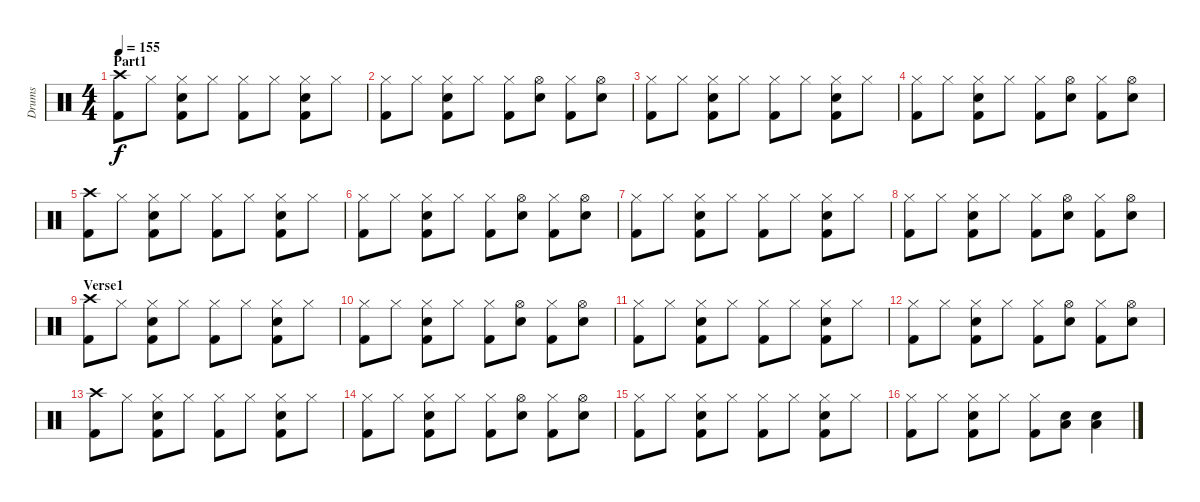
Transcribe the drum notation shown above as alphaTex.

\track ("Drums" "Drums") {instrument percussion}
\staff {score}
\articulation defaults
\ts (4 4)
\section ("" "Part1")
\tempo 155
\clef neutral
\ks c
("Crash high (hit)" "Kick (hit) 2").8{dy f} "Hi-Hat (closed)".8 ("Hi-Hat (closed)" "Kick (hit) 2" "Electric Snare (hit)").8 "Hi-Hat (closed)".8 ("Hi-Hat (closed)" "Kick (hit) 2").8 "Hi-Hat (closed)".8 ("Hi-Hat (closed)" "Kick (hit) 2" "Electric Snare (hit)").8 "Hi-Hat (closed)".8 |
("Hi-Hat (closed)" "Kick (hit) 2").8 "Hi-Hat (closed)".8 ("Hi-Hat (closed)" "Kick (hit) 2" "Electric Snare (hit)").8 "Hi-Hat (closed)".8 ("Hi-Hat (closed)" "Kick (hit) 2").8 ("Hi-Hat (open)" "Electric Snare (hit)").8 ("Hi-Hat (closed)" "Kick (hit) 2").8 ("Hi-Hat (open)" "Electric Snare (hit)").8 |
("Hi-Hat (closed)" "Kick (hit) 2").8 "Hi-Hat (closed)".8 ("Hi-Hat (closed)" "Kick (hit) 2" "Electric Snare (hit)").8 "Hi-Hat (closed)".8 ("Hi-Hat (closed)" "Kick (hit) 2").8 "Hi-Hat (closed)".8 ("Hi-Hat (closed)" "Kick (hit) 2" "Electric Snare (hit)").8 "Hi-Hat (closed)".8 |
("Hi-Hat (closed)" "Kick (hit) 2").8 "Hi-Hat (closed)".8 ("Hi-Hat (closed)" "Kick (hit) 2" "Electric Snare (hit)").8 "Hi-Hat (closed)".8 ("Hi-Hat (closed)" "Kick (hit) 2").8 ("Hi-Hat (open)" "Electric Snare (hit)").8 ("Hi-Hat (closed)" "Kick (hit) 2").8 ("Hi-Hat (open)" "Electric Snare (hit)").8 |
("Crash high (hit)" "Kick (hit) 2").8 "Hi-Hat (closed)".8 ("Hi-Hat (closed)" "Kick (hit) 2" "Electric Snare (hit)").8 "Hi-Hat (closed)".8 ("Hi-Hat (closed)" "Kick (hit) 2").8 "Hi-Hat (closed)".8 ("Hi-Hat (closed)" "Kick (hit) 2" "Electric Snare (hit)").8 "Hi-Hat (closed)".8 |
("Hi-Hat (closed)" "Kick (hit) 2").8 "Hi-Hat (closed)".8 ("Hi-Hat (closed)" "Kick (hit) 2" "Electric Snare (hit)").8 "Hi-Hat (closed)".8 ("Hi-Hat (closed)" "Kick (hit) 2").8 ("Hi-Hat (open)" "Electric Snare (hit)").8 ("Hi-Hat (closed)" "Kick (hit) 2").8 ("Hi-Hat (open)" "Electric Snare (hit)").8 |
("Hi-Hat (closed)" "Kick (hit) 2").8 "Hi-Hat (closed)".8 ("Hi-Hat (closed)" "Kick (hit) 2" "Electric Snare (hit)").8 "Hi-Hat (closed)".8 ("Hi-Hat (closed)" "Kick (hit) 2").8 "Hi-Hat (closed)".8 ("Hi-Hat (closed)" "Kick (hit) 2" "Electric Snare (hit)").8 "Hi-Hat (closed)".8 |
("Hi-Hat (closed)" "Kick (hit) 2").8 "Hi-Hat (closed)".8 ("Hi-Hat (closed)" "Kick (hit) 2" "Electric Snare (hit)").8 "Hi-Hat (closed)".8 ("Hi-Hat (closed)" "Kick (hit) 2").8 ("Hi-Hat (open)" "Electric Snare (hit)").8 ("Hi-Hat (closed)" "Kick (hit) 2").8 ("Hi-Hat (open)" "Electric Snare (hit)").8 |
\section ("" "Verse1")
("Crash high (hit)" "Kick (hit) 2").8 "Hi-Hat (closed)".8 ("Hi-Hat (closed)" "Kick (hit) 2" "Electric Snare (hit)").8 "Hi-Hat (closed)".8 ("Hi-Hat (closed)" "Kick (hit) 2").8 "Hi-Hat (closed)".8 ("Hi-Hat (closed)" "Kick (hit) 2" "Electric Snare (hit)").8 "Hi-Hat (closed)".8 |
("Hi-Hat (closed)" "Kick (hit) 2").8 "Hi-Hat (closed)".8 ("Hi-Hat (closed)" "Kick (hit) 2" "Electric Snare (hit)").8 "Hi-Hat (closed)".8 ("Hi-Hat (closed)" "Kick (hit) 2").8 ("Hi-Hat (open)" "Electric Snare (hit)").8 ("Hi-Hat (closed)" "Kick (hit) 2").8 ("Hi-Hat (open)" "Electric Snare (hit)").8 |
("Hi-Hat (closed)" "Kick (hit) 2").8 "Hi-Hat (closed)".8 ("Hi-Hat (closed)" "Kick (hit) 2" "Electric Snare (hit)").8 "Hi-Hat (closed)".8 ("Hi-Hat (closed)" "Kick (hit) 2").8 "Hi-Hat (closed)".8 ("Hi-Hat (closed)" "Kick (hit) 2" "Electric Snare (hit)").8 "Hi-Hat (closed)".8 |
("Hi-Hat (closed)" "Kick (hit) 2").8 "Hi-Hat (closed)".8 ("Hi-Hat (closed)" "Kick (hit) 2" "Electric Snare (hit)").8 "Hi-Hat (closed)".8 ("Hi-Hat (closed)" "Kick (hit) 2").8 ("Hi-Hat (open)" "Electric Snare (hit)").8 ("Hi-Hat (closed)" "Kick (hit) 2").8 ("Hi-Hat (open)" "Electric Snare (hit)").8 |
("Crash high (hit)" "Kick (hit) 2").8 "Hi-Hat (closed)".8 ("Hi-Hat (closed)" "Kick (hit) 2" "Electric Snare (hit)").8 "Hi-Hat (closed)".8 ("Hi-Hat (closed)" "Kick (hit) 2").8 "Hi-Hat (closed)".8 ("Hi-Hat (closed)" "Kick (hit) 2" "Electric Snare (hit)").8 "Hi-Hat (closed)".8 |
("Hi-Hat (closed)" "Kick (hit) 2").8 "Hi-Hat (closed)".8 ("Hi-Hat (closed)" "Kick (hit) 2" "Electric Snare (hit)").8 "Hi-Hat (closed)".8 ("Hi-Hat (closed)" "Kick (hit) 2").8 ("Hi-Hat (open)" "Electric Snare (hit)").8 ("Hi-Hat (closed)" "Kick (hit) 2").8 ("Hi-Hat (open)" "Electric Snare (hit)").8 |
("Hi-Hat (closed)" "Kick (hit) 2").8 "Hi-Hat (closed)".8 ("Hi-Hat (closed)" "Kick (hit) 2" "Electric Snare (hit)").8 "Hi-Hat (closed)".8 ("Hi-Hat (closed)" "Kick (hit) 2").8 "Hi-Hat (closed)".8 ("Hi-Hat (closed)" "Kick (hit) 2" "Electric Snare (hit)").8 "Hi-Hat (closed)".8 |
("Hi-Hat (closed)" "Kick (hit) 2").8 "Hi-Hat (closed)".8 ("Hi-Hat (closed)" "Kick (hit) 2" "Electric Snare (hit)").8 "Hi-Hat (closed)".8 ("Hi-Hat (closed)" "Kick (hit) 2").8 ("Low Floor Tom (hit)" "Electric Snare (hit)").8 ("Low Floor Tom (hit)" "Electric Snare (hit)").4
